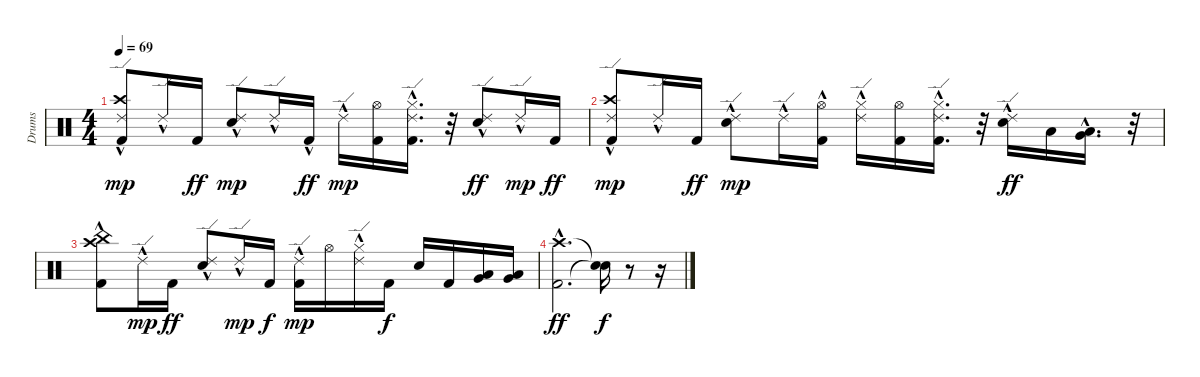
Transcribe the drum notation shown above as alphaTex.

\track ("Drums" "Drums") {instrument percussion}
\staff {score}
\articulation defaults
\ts (4 4)
\tempo 69
\clef neutral
\ks c
("Kick (hit) 2" "Crash high (hit)"{hac} "Ride (edge) 2"{hac}).8{dy mp} "Ride (edge) 2"{hac}.16 "Kick (hit) 2".16{dy ff} ("Electric Snare (hit)" "Ride (edge) 2"{hac}).8{dy mp} "Ride (edge) 2"{hac}.16 "Kick (hit) 2"{hac}.16{dy ff} "Ride (edge) 2"{hac}.16{dy mp} ("Kick (hit) 2" "Hi-Hat (open)").16 ("Kick (hit) 2"{hac} "Ride (edge) 2"{hac} "Hi-Hat (closed)").16{d} r.32 ("Ride (edge) 2"{hac} "Electric Snare (hit)").8{dy ff} "Ride (edge) 2"{hac}.16{dy mp} "Kick (hit) 2".16{dy ff} |
("Crash high (hit)"{hac} "Kick (hit) 2" "Ride (edge) 2"{hac}).8{dy mp} "Ride (edge) 2"{hac}.16 "Kick (hit) 2".16{dy ff} ("Electric Snare (hit)" "Ride (edge) 2"{hac}).8{dy mp} "Ride (edge) 2"{hac}.16 ("Kick (hit) 2"{hac} "Hi-Hat (open)").16 ("Hi-Hat (closed)" "Ride (edge) 2"{hac}).16 ("Kick (hit) 2" "Hi-Hat (open)").16 ("Kick (hit) 2"{hac} "Hi-Hat (closed)" "Ride (edge) 2"{hac}).16{d} r.32 ("Ride (edge) 2"{hac} "Electric Snare (hit)").16{dy ff} "Low Tom (hit)".16 ("Very Low Tom (hit)"{hac} "Low Floor Tom (hit)"{hac}).16{d} r.32 |
("Crash high (hit)"{hac} "China (hit)"{hac} "Kick (hit) 2").8 "Ride (edge) 2"{hac}.16{dy mp} "Kick (hit) 2".16{dy ff} ("Ride (edge) 2"{hac} "Electric Snare (hit)").8 "Ride (edge) 2"{hac}.16{dy mp} "Kick (hit) 2".16{dy f} ("Ride (edge) 2"{hac} "Kick (hit) 2").16{dy mp} "Hi-Hat (open)".16 ("Hi-Hat (closed)" "Ride (edge) 2"{hac}).16 "Kick (hit) 2".16{dy f} "Electric Snare (hit)".16 "Kick (hit) 2".16 ("Very Low Tom (hit)" "Low Tom (hit)").16 ("Low Floor Tom (hit)" "Very Low Tom (hit)").16 |
("Crash high (hit)"{hac} "Kick (hit) 2"{hac}).2{d dy ff} ("Snare (hit)"{t} "Snare (hit)"{t}).16{dy f} r.8 r.16
